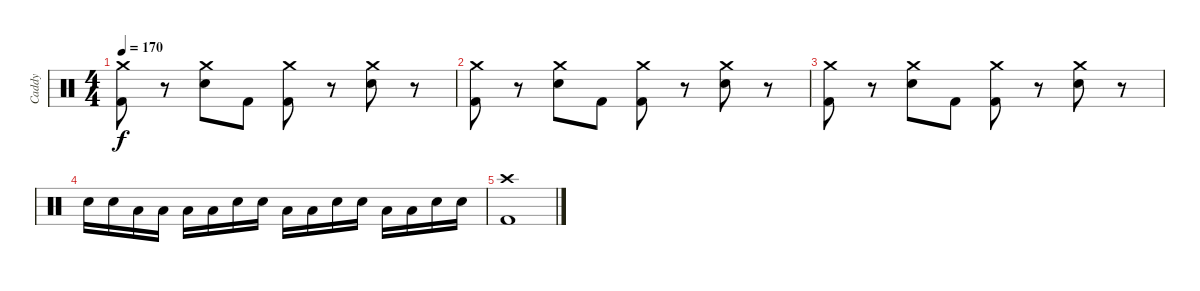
\track ("Caddy" "Caddy") {instrument percussion}
\staff {score}
\articulation defaults
\ts (4 4)
\tempo 170
\clef neutral
\ks c
("Crash medium (hit)" "Kick (hit) 2").8{dy f} r.8 ("Crash medium (hit)" "Electric Snare (hit)").8 "Kick (hit) 2".8 ("Crash medium (hit)" "Kick (hit) 2").8 r.8 ("Crash medium (hit)" "Electric Snare (hit)").8 r.8 |
("Crash medium (hit)" "Kick (hit) 2").8 r.8 ("Crash medium (hit)" "Electric Snare (hit)").8 "Kick (hit) 2".8 ("Crash medium (hit)" "Kick (hit) 2").8 r.8 ("Crash medium (hit)" "Electric Snare (hit)").8 r.8 |
("Crash medium (hit)" "Kick (hit) 2").8 r.8 ("Crash medium (hit)" "Electric Snare (hit)").8 "Kick (hit) 2".8 ("Crash medium (hit)" "Kick (hit) 2").8 r.8 ("Crash medium (hit)" "Electric Snare (hit)").8 r.8 |
"Electric Snare (hit)".16 "Electric Snare (hit)".16 "Low Tom (hit)".16 "Low Tom (hit)".16 "Low Tom (hit)".16 "Low Tom (hit)".16 "Electric Snare (hit)".16 "Electric Snare (hit)".16 "Low Tom (hit)".16 "Low Tom (hit)".16 "Electric Snare (hit)".16 "Electric Snare (hit)".16 "Low Tom (hit)".16 "Low Tom (hit)".16 "Electric Snare (hit)".16 "Electric Snare (hit)".16 |
("Crash high (hit)" "Kick (hit) 2").1
